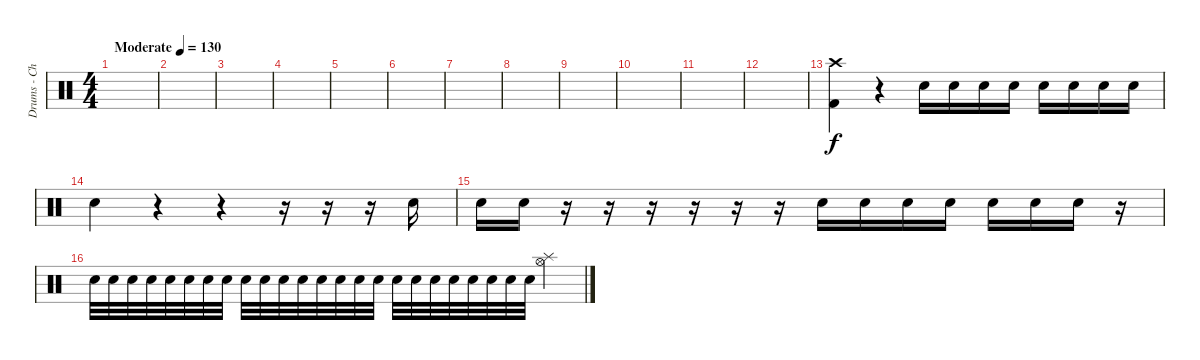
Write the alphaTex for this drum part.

\track ("Drums - Chevelle Spiteri" "Drums - Ch") {instrument percussion}
\staff {score}
\articulation defaults
\ts (4 4)
\tempo (130 "Moderate")
\clef neutral
\ks c
|
|
|
|
|
|
|
|
|
|
|
|
("Crash high (hit)" "Kick (hit) 2").4 r.4 "Snare (hit) 2".16 "Snare (hit) 2".16 "Snare (hit) 2".16 "Snare (hit) 2".16 "Snare (hit) 2".16 "Snare (hit) 2".16 "Snare (hit) 2".16 "Snare (hit) 2".16 |
"Snare (hit) 2".4 r.4 r.4 r.16 r.16 r.16 "Snare (hit) 2".16 |
"Snare (hit) 2".16 "Snare (hit) 2".16 r.16 r.16 r.16 r.16 r.16 r.16 "Snare (hit) 2".16 "Snare (hit) 2".16 "Snare (hit) 2".16 "Snare (hit) 2".16 "Snare (hit) 2".16 "Snare (hit) 2".16 "Snare (hit) 2".16 r.16 |
"Snare (hit) 2".32 "Snare (hit) 2".32 "Snare (hit) 2".32 "Snare (hit) 2".32 "Snare (hit) 2".32 "Snare (hit) 2".32 "Snare (hit) 2".32 "Snare (hit) 2".32 "Snare (hit) 2".32 "Snare (hit) 2".32 "Snare (hit) 2".32 "Snare (hit) 2".32 "Snare (hit) 2".32 "Snare (hit) 2".32 "Snare (hit) 2".32 "Snare (hit) 2".32 "Snare (hit) 2".32 "Snare (hit) 2".32 "Snare (hit) 2".32 "Snare (hit) 2".32 "Snare (hit) 2".32 "Snare (hit) 2".32 "Snare (hit) 2".32 "Snare (hit) 2".32 ("Splash (hit)" "Hi-Hat (open)").4
